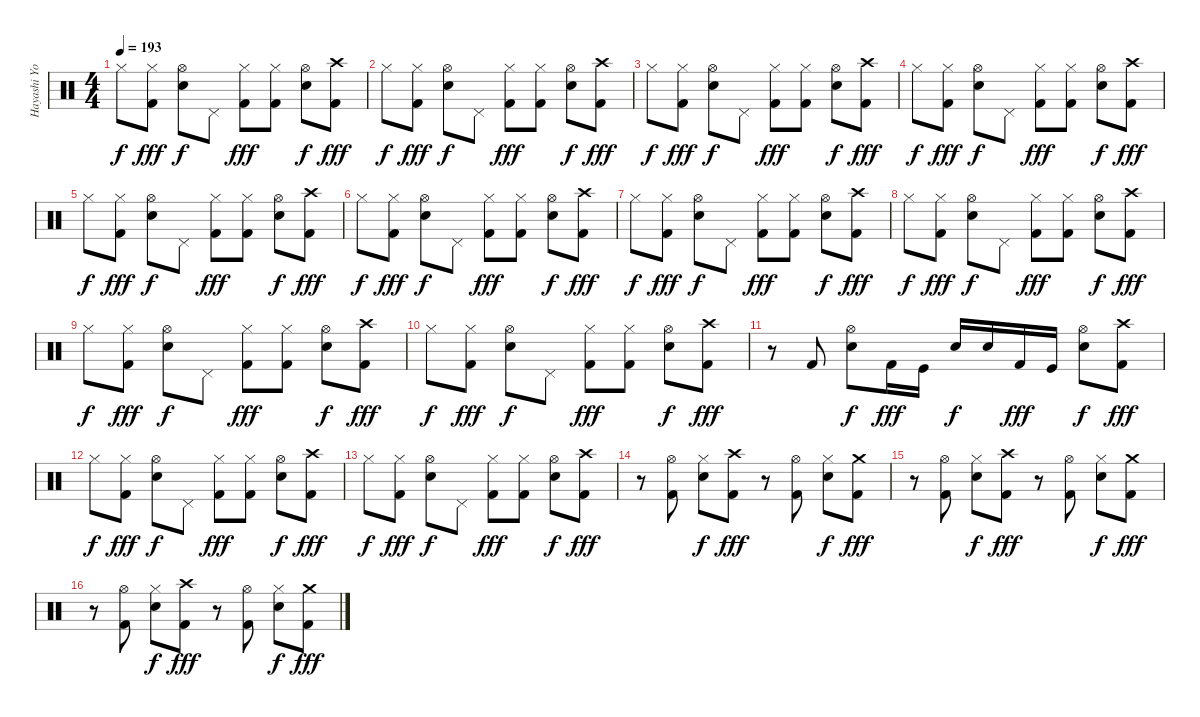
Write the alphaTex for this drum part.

\track ("Hayashi Yoshiki(Yoshiki)" "Hayashi Yo") {instrument percussion}
\staff {score}
\articulation defaults
\ts (4 4)
\tempo 193
\clef neutral
\ks c "Hi-Hat (closed)".8{dy f}
("Hi-Hat (closed)" "Kick (hit) 2").8{dy fff} ("Hi-Hat (open)" "Electric Snare (hit)").8{dy f} "Pedal Hi-Hat (hit)".8 ("Hi-Hat (closed)" "Kick (hit) 2").8{dy fff} ("Hi-Hat (closed)" "Kick (hit) 2").8 ("Hi-Hat (open)" "Electric Snare (hit)").8{dy f} ("Crash high (hit)" "Kick (hit) 2").8{dy fff} |
"Hi-Hat (closed)".8{dy f} ("Hi-Hat (closed)" "Kick (hit) 2").8{dy fff} ("Hi-Hat (open)" "Electric Snare (hit)").8{dy f} "Pedal Hi-Hat (hit)".8 ("Hi-Hat (closed)" "Kick (hit) 2").8{dy fff} ("Hi-Hat (closed)" "Kick (hit) 2").8 ("Hi-Hat (open)" "Electric Snare (hit)").8{dy f} ("Crash high (hit)" "Kick (hit) 2").8{dy fff} |
"Hi-Hat (closed)".8{dy f} ("Hi-Hat (closed)" "Kick (hit) 2").8{dy fff} ("Hi-Hat (open)" "Electric Snare (hit)").8{dy f} "Pedal Hi-Hat (hit)".8 ("Hi-Hat (closed)" "Kick (hit) 2").8{dy fff} ("Hi-Hat (closed)" "Kick (hit) 2").8 ("Hi-Hat (open)" "Electric Snare (hit)").8{dy f} ("Crash high (hit)" "Kick (hit) 2").8{dy fff} |
"Hi-Hat (closed)".8{dy f} ("Hi-Hat (closed)" "Kick (hit) 2").8{dy fff} ("Hi-Hat (open)" "Electric Snare (hit)").8{dy f} "Pedal Hi-Hat (hit)".8 ("Hi-Hat (closed)" "Kick (hit) 2").8{dy fff} ("Hi-Hat (closed)" "Kick (hit) 2").8 ("Hi-Hat (open)" "Electric Snare (hit)").8{dy f} ("Crash high (hit)" "Kick (hit) 2").8{dy fff} |
"Hi-Hat (closed)".8{dy f} ("Hi-Hat (closed)" "Kick (hit) 2").8{dy fff} ("Hi-Hat (open)" "Electric Snare (hit)").8{dy f} "Pedal Hi-Hat (hit)".8 ("Hi-Hat (closed)" "Kick (hit) 2").8{dy fff} ("Hi-Hat (closed)" "Kick (hit) 2").8 ("Hi-Hat (open)" "Electric Snare (hit)").8{dy f} ("Crash high (hit)" "Kick (hit) 2").8{dy fff} |
"Hi-Hat (closed)".8{dy f} ("Hi-Hat (closed)" "Kick (hit) 2").8{dy fff} ("Hi-Hat (open)" "Electric Snare (hit)").8{dy f} "Pedal Hi-Hat (hit)".8 ("Hi-Hat (closed)" "Kick (hit) 2").8{dy fff} ("Hi-Hat (closed)" "Kick (hit) 2").8 ("Hi-Hat (open)" "Electric Snare (hit)").8{dy f} ("Crash high (hit)" "Kick (hit) 2").8{dy fff} |
"Hi-Hat (closed)".8{dy f} ("Hi-Hat (closed)" "Kick (hit) 2").8{dy fff} ("Hi-Hat (open)" "Electric Snare (hit)").8{dy f} "Pedal Hi-Hat (hit)".8 ("Hi-Hat (closed)" "Kick (hit) 2").8{dy fff} ("Hi-Hat (closed)" "Kick (hit) 2").8 ("Hi-Hat (open)" "Electric Snare (hit)").8{dy f} ("Crash high (hit)" "Kick (hit) 2").8{dy fff} |
"Hi-Hat (closed)".8{dy f} ("Hi-Hat (closed)" "Kick (hit) 2").8{dy fff} ("Hi-Hat (open)" "Electric Snare (hit)").8{dy f} "Pedal Hi-Hat (hit)".8 ("Hi-Hat (closed)" "Kick (hit) 2").8{dy fff} ("Hi-Hat (closed)" "Kick (hit) 2").8 ("Hi-Hat (open)" "Electric Snare (hit)").8{dy f} ("Crash high (hit)" "Kick (hit) 2").8{dy fff} |
"Hi-Hat (closed)".8{dy f} ("Hi-Hat (closed)" "Kick (hit) 2").8{dy fff} ("Hi-Hat (open)" "Electric Snare (hit)").8{dy f} "Pedal Hi-Hat (hit)".8 ("Hi-Hat (closed)" "Kick (hit) 2").8{dy fff} ("Hi-Hat (closed)" "Kick (hit) 2").8 ("Hi-Hat (open)" "Electric Snare (hit)").8{dy f} ("Crash high (hit)" "Kick (hit) 2").8{dy fff} |
"Hi-Hat (closed)".8{dy f} ("Hi-Hat (closed)" "Kick (hit) 2").8{dy fff} ("Hi-Hat (open)" "Electric Snare (hit)").8{dy f} "Pedal Hi-Hat (hit)".8 ("Hi-Hat (closed)" "Kick (hit) 2").8{dy fff} ("Hi-Hat (closed)" "Kick (hit) 2").8 ("Hi-Hat (open)" "Electric Snare (hit)").8{dy f} ("Crash high (hit)" "Kick (hit) 2").8{dy fff} |
r.8 "Kick (hit) 2".8 ("Hi-Hat (open)" "Electric Snare (hit)").8{dy f} "Kick (hit) 2".16{dy fff} "Kick (hit)".16 "Electric Snare (hit)".16{dy f} "Electric Snare (hit)".16 "Kick (hit) 2".16{dy fff} "Kick (hit)".16 ("Hi-Hat (open)" "Electric Snare (hit)").8{dy f} ("Crash high (hit)" "Kick (hit) 2").8{dy fff} |
"Hi-Hat (closed)".8{dy f} ("Hi-Hat (closed)" "Kick (hit) 2").8{dy fff} ("Hi-Hat (open)" "Electric Snare (hit)").8{dy f} "Pedal Hi-Hat (hit)".8 ("Hi-Hat (closed)" "Kick (hit) 2").8{dy fff} ("Hi-Hat (closed)" "Kick (hit) 2").8 ("Hi-Hat (open)" "Electric Snare (hit)").8{dy f} ("Crash high (hit)" "Kick (hit) 2").8{dy fff} |
"Hi-Hat (closed)".8{dy f} ("Hi-Hat (closed)" "Kick (hit) 2").8{dy fff} ("Hi-Hat (open)" "Electric Snare (hit)").8{dy f} "Pedal Hi-Hat (hit)".8 ("Hi-Hat (closed)" "Kick (hit) 2").8{dy fff} ("Hi-Hat (closed)" "Kick (hit) 2").8 ("Hi-Hat (open)" "Electric Snare (hit)").8{dy f} ("Crash high (hit)" "Kick (hit) 2").8{dy fff} |
r.8 ("Hi-Hat (open)" "Kick (hit) 2").8 ("Hi-Hat (closed)" "Electric Snare (hit)").8{dy f} ("Crash high (hit)" "Kick (hit) 2").8{dy fff} r.8 ("Hi-Hat (open)" "Kick (hit) 2").8 ("Hi-Hat (closed)" "Electric Snare (hit)").8{dy f} ("Crash medium (hit)" "Kick (hit) 2").8{dy fff} |
r.8 ("Hi-Hat (open)" "Kick (hit) 2").8 ("Hi-Hat (closed)" "Electric Snare (hit)").8{dy f} ("Crash high (hit)" "Kick (hit) 2").8{dy fff} r.8 ("Hi-Hat (open)" "Kick (hit) 2").8 ("Hi-Hat (closed)" "Electric Snare (hit)").8{dy f} ("Crash medium (hit)" "Kick (hit) 2").8{dy fff} |
r.8 ("Hi-Hat (open)" "Kick (hit) 2").8 ("Hi-Hat (closed)" "Electric Snare (hit)").8{dy f} ("Crash high (hit)" "Kick (hit) 2").8{dy fff} r.8 ("Hi-Hat (open)" "Kick (hit) 2").8 ("Hi-Hat (closed)" "Electric Snare (hit)").8{dy f} ("Crash medium (hit)" "Kick (hit) 2").8{dy fff}
